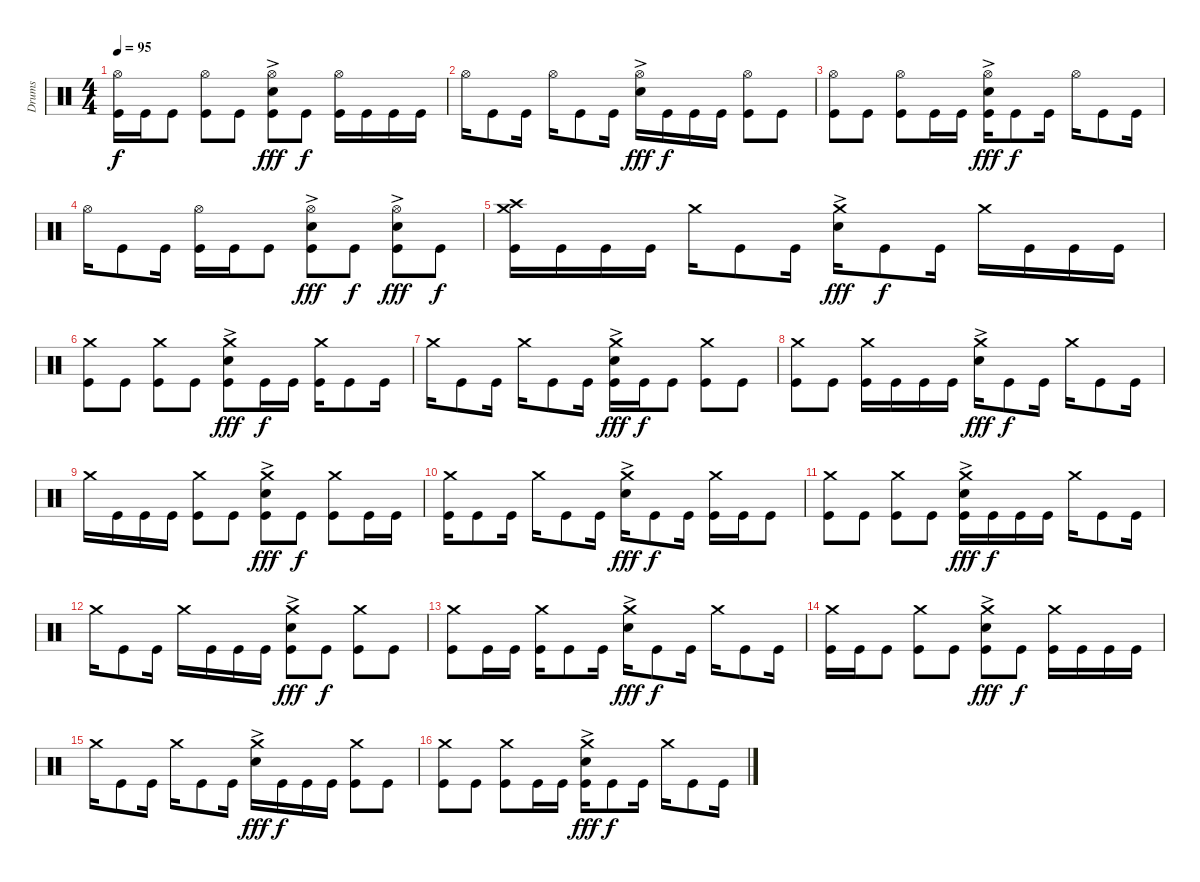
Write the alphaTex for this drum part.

\track ("Drums" "Drums") {instrument percussion}
\staff {score}
\articulation defaults
\ts (4 4)
\tempo 95
\clef neutral
\ks c
("Hi-Hat (open)" "Kick (hit)").16{dy f} "Kick (hit)".16 "Kick (hit)".8 ("Hi-Hat (open)" "Kick (hit)").8 "Kick (hit)".8 ("Hi-Hat (open)" "Snare (hit) 2"{ac} "Kick (hit)").8{dy fff} "Kick (hit)".8{dy f} ("Hi-Hat (open)" "Kick (hit)").16 "Kick (hit)".16 "Kick (hit)".16 "Kick (hit)".16 |
"Hi-Hat (open)".16 "Kick (hit)".8 "Kick (hit)".16 "Hi-Hat (open)".16 "Kick (hit)".8 "Kick (hit)".16 ("Hi-Hat (open)" "Snare (hit) 2"{ac}).16{dy fff} "Kick (hit)".16{dy f} "Kick (hit)".16 "Kick (hit)".16 ("Hi-Hat (open)" "Kick (hit)").8 "Kick (hit)".8 |
("Hi-Hat (open)" "Kick (hit)").8 "Kick (hit)".8 ("Hi-Hat (open)" "Kick (hit)").8 "Kick (hit)".16 "Kick (hit)".16 ("Hi-Hat (open)" "Snare (hit) 2"{ac} "Kick (hit)").16{dy fff} "Kick (hit)".8{dy f} "Kick (hit)".16 "Hi-Hat (open)".16 "Kick (hit)".8 "Kick (hit)".16 |
"Hi-Hat (open)".16 "Kick (hit)".8 "Kick (hit)".16 ("Hi-Hat (open)" "Kick (hit)").16 "Kick (hit)".16 "Kick (hit)".8 ("Hi-Hat (open)" "Snare (hit) 2"{ac} "Kick (hit)").8{dy fff} "Kick (hit)".8{dy f} ("Hi-Hat (open)" "Snare (hit) 2"{ac} "Kick (hit)").8{dy fff} "Kick (hit)".8{dy f} |
("Crash high (hit)" "Crash medium (hit)" "Kick (hit)").16 "Kick (hit)".16 "Kick (hit)".16 "Kick (hit)".16 "Crash medium (hit)".16 "Kick (hit)".8 "Kick (hit)".16 ("Crash medium (hit)" "Snare (hit) 2"{ac}).16{dy fff} "Kick (hit)".8{dy f} "Kick (hit)".16 "Crash medium (hit)".16 "Kick (hit)".16 "Kick (hit)".16 "Kick (hit)".16 |
("Crash medium (hit)" "Kick (hit)").8 "Kick (hit)".8 ("Crash medium (hit)" "Kick (hit)").8 "Kick (hit)".8 ("Crash medium (hit)" "Snare (hit) 2"{ac} "Kick (hit)").8{dy fff} "Kick (hit)".16{dy f} "Kick (hit)".16 ("Crash medium (hit)" "Kick (hit)").16 "Kick (hit)".8 "Kick (hit)".16 |
"Crash medium (hit)".16 "Kick (hit)".8 "Kick (hit)".16 "Crash medium (hit)".16 "Kick (hit)".8 "Kick (hit)".16 ("Crash medium (hit)" "Snare (hit) 2"{ac} "Kick (hit)").16{dy fff} "Kick (hit)".16{dy f} "Kick (hit)".8 ("Crash medium (hit)" "Kick (hit)").8 "Kick (hit)".8 |
("Crash medium (hit)" "Kick (hit)").8 "Kick (hit)".8 ("Crash medium (hit)" "Kick (hit)").16 "Kick (hit)".16 "Kick (hit)".16 "Kick (hit)".16 ("Crash medium (hit)" "Snare (hit) 2"{ac}).16{dy fff} "Kick (hit)".8{dy f} "Kick (hit)".16 "Crash medium (hit)".16 "Kick (hit)".8 "Kick (hit)".16 |
"Crash medium (hit)".16 "Kick (hit)".16 "Kick (hit)".16 "Kick (hit)".16 ("Crash medium (hit)" "Kick (hit)").8 "Kick (hit)".8 ("Crash medium (hit)" "Snare (hit) 2"{ac} "Kick (hit)").8{dy fff} "Kick (hit)".8{dy f} ("Crash medium (hit)" "Kick (hit)").8 "Kick (hit)".16 "Kick (hit)".16 |
("Crash medium (hit)" "Kick (hit)").16 "Kick (hit)".8 "Kick (hit)".16 "Crash medium (hit)".16 "Kick (hit)".8 "Kick (hit)".16 ("Crash medium (hit)" "Snare (hit) 2"{ac}).16{dy fff} "Kick (hit)".8{dy f} "Kick (hit)".16 ("Crash medium (hit)" "Kick (hit)").16 "Kick (hit)".16 "Kick (hit)".8 |
("Crash medium (hit)" "Kick (hit)").8 "Kick (hit)".8 ("Crash medium (hit)" "Kick (hit)").8 "Kick (hit)".8 ("Crash medium (hit)" "Snare (hit) 2"{ac} "Kick (hit)").16{dy fff} "Kick (hit)".16{dy f} "Kick (hit)".16 "Kick (hit)".16 "Crash medium (hit)".16 "Kick (hit)".8 "Kick (hit)".16 |
"Crash medium (hit)".16 "Kick (hit)".8 "Kick (hit)".16 "Crash medium (hit)".16 "Kick (hit)".16 "Kick (hit)".16 "Kick (hit)".16 ("Crash medium (hit)" "Snare (hit) 2"{ac} "Kick (hit)").8{dy fff} "Kick (hit)".8{dy f} ("Crash medium (hit)" "Kick (hit)").8 "Kick (hit)".8 |
("Crash medium (hit)" "Kick (hit)").8 "Kick (hit)".16 "Kick (hit)".16 ("Crash medium (hit)" "Kick (hit)").16 "Kick (hit)".8 "Kick (hit)".16 ("Crash medium (hit)" "Snare (hit) 2"{ac}).16{dy fff} "Kick (hit)".8{dy f} "Kick (hit)".16 "Crash medium (hit)".16 "Kick (hit)".8 "Kick (hit)".16 |
("Crash medium (hit)" "Kick (hit)").16 "Kick (hit)".16 "Kick (hit)".8 ("Crash medium (hit)" "Kick (hit)").8 "Kick (hit)".8 ("Crash medium (hit)" "Snare (hit) 2"{ac} "Kick (hit)").8{dy fff} "Kick (hit)".8{dy f} ("Crash medium (hit)" "Kick (hit)").16 "Kick (hit)".16 "Kick (hit)".16 "Kick (hit)".16 |
"Crash medium (hit)".16 "Kick (hit)".8 "Kick (hit)".16 "Crash medium (hit)".16 "Kick (hit)".8 "Kick (hit)".16 ("Crash medium (hit)" "Snare (hit) 2"{ac}).16{dy fff} "Kick (hit)".16{dy f} "Kick (hit)".16 "Kick (hit)".16 ("Crash medium (hit)" "Kick (hit)").8 "Kick (hit)".8 |
("Crash medium (hit)" "Kick (hit)").8 "Kick (hit)".8 ("Crash medium (hit)" "Kick (hit)").8 "Kick (hit)".16 "Kick (hit)".16 ("Crash medium (hit)" "Snare (hit) 2"{ac} "Kick (hit)").16{dy fff} "Kick (hit)".8{dy f} "Kick (hit)".16 "Crash medium (hit)".16 "Kick (hit)".8 "Kick (hit)".16
